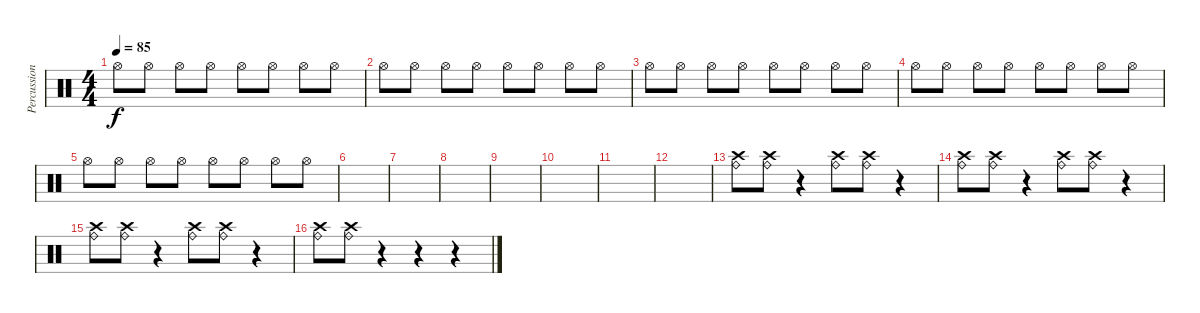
\track ("Percussion" "Percussion") {instrument percussion}
\staff {score}
\articulation defaults
\ts (4 4)
\tempo 85
\clef neutral
\ks c "Hi-Hat (open)".8{dy f} "Hi-Hat (open)".8 "Hi-Hat (open)".8 "Hi-Hat (open)".8 "Hi-Hat (open)".8 "Hi-Hat (open)".8 "Hi-Hat (open)".8 "Hi-Hat (open)".8
|
"Hi-Hat (open)".8 "Hi-Hat (open)".8 "Hi-Hat (open)".8 "Hi-Hat (open)".8 "Hi-Hat (open)".8 "Hi-Hat (open)".8 "Hi-Hat (open)".8 "Hi-Hat (open)".8 |
"Hi-Hat (open)".8 "Hi-Hat (open)".8 "Hi-Hat (open)".8 "Hi-Hat (open)".8 "Hi-Hat (open)".8 "Hi-Hat (open)".8 "Hi-Hat (open)".8 "Hi-Hat (open)".8 |
"Hi-Hat (open)".8 "Hi-Hat (open)".8 "Hi-Hat (open)".8 "Hi-Hat (open)".8 "Hi-Hat (open)".8 "Hi-Hat (open)".8 "Hi-Hat (open)".8 "Hi-Hat (open)".8 |
"Hi-Hat (open)".8 "Hi-Hat (open)".8 "Hi-Hat (open)".8 "Hi-Hat (open)".8 "Hi-Hat (open)".8 "Hi-Hat (open)".8 "Hi-Hat (open)".8 "Hi-Hat (open)".8 |
|
|
|
|
|
|
|
("Ride (bell)" "Crash high (hit)").8{volume 3 balance 12} ("Ride (bell)" "Crash high (hit)").8{balance 12} r.4 ("Ride (bell)" "Crash high (hit)").8{balance 4} ("Ride (bell)" "Crash high (hit)").8{balance 4} r.4 |
("Ride (bell)" "Crash high (hit)").8{balance 8} ("Ride (bell)" "Crash high (hit)").8{balance 8} r.4 ("Ride (bell)" "Crash high (hit)").8{balance 4} ("Ride (bell)" "Crash high (hit)").8{balance 4} r.4 |
("Ride (bell)" "Crash high (hit)").8{balance 12} ("Ride (bell)" "Crash high (hit)").8{balance 12} r.4 ("Ride (bell)" "Crash high (hit)").8{balance 8} ("Ride (bell)" "Crash high (hit)").8{balance 8} r.4 |
("Ride (bell)" "Crash high (hit)").8{balance 4} ("Ride (bell)" "Crash high (hit)").8{balance 4} r.4 r.4 r.4
